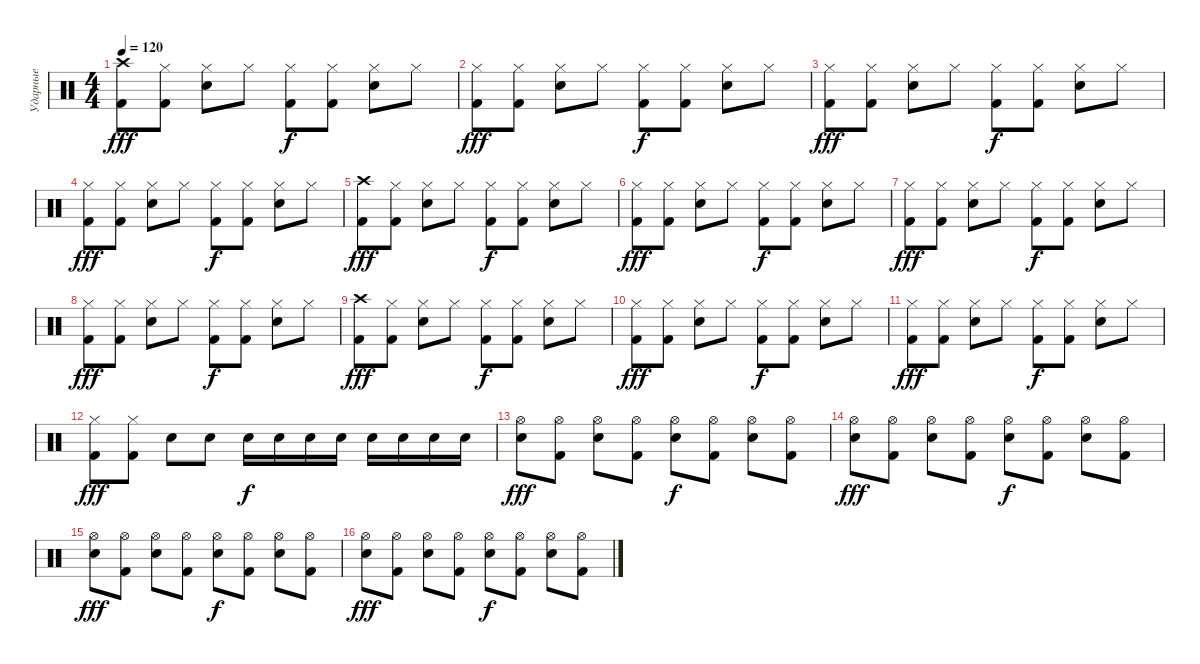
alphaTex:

\track ("Ударные" "Ударные") {instrument percussion}
\staff {score}
\articulation defaults
\ts (4 4)
\tempo 120
\clef neutral
\ks c
("Crash high (hit)" "Kick (hit) 2").8{dy fff} ("Hi-Hat (closed)" "Kick (hit) 2").8 ("Hi-Hat (closed)" "Snare (hit) 2").8 "Hi-Hat (closed)".8 ("Hi-Hat (closed)" "Kick (hit) 2").8{dy f} ("Hi-Hat (closed)" "Kick (hit) 2").8 ("Hi-Hat (closed)" "Snare (hit) 2").8 "Hi-Hat (closed)".8 |
("Hi-Hat (closed)" "Kick (hit) 2").8{dy fff} ("Hi-Hat (closed)" "Kick (hit) 2").8 ("Hi-Hat (closed)" "Snare (hit) 2").8 "Hi-Hat (closed)".8 ("Hi-Hat (closed)" "Kick (hit) 2").8{dy f} ("Hi-Hat (closed)" "Kick (hit) 2").8 ("Hi-Hat (closed)" "Snare (hit) 2").8 "Hi-Hat (closed)".8 |
("Hi-Hat (closed)" "Kick (hit) 2").8{dy fff} ("Hi-Hat (closed)" "Kick (hit) 2").8 ("Hi-Hat (closed)" "Snare (hit) 2").8 "Hi-Hat (closed)".8 ("Hi-Hat (closed)" "Kick (hit) 2").8{dy f} ("Hi-Hat (closed)" "Kick (hit) 2").8 ("Hi-Hat (closed)" "Snare (hit) 2").8 "Hi-Hat (closed)".8 |
("Hi-Hat (closed)" "Kick (hit) 2").8{dy fff} ("Hi-Hat (closed)" "Kick (hit) 2").8 ("Hi-Hat (closed)" "Snare (hit) 2").8 "Hi-Hat (closed)".8 ("Hi-Hat (closed)" "Kick (hit) 2").8{dy f} ("Hi-Hat (closed)" "Kick (hit) 2").8 ("Hi-Hat (closed)" "Snare (hit) 2").8 "Hi-Hat (closed)".8 |
("Crash high (hit)" "Kick (hit) 2").8{dy fff} ("Hi-Hat (closed)" "Kick (hit) 2").8 ("Hi-Hat (closed)" "Snare (hit) 2").8 "Hi-Hat (closed)".8 ("Hi-Hat (closed)" "Kick (hit) 2").8{dy f} ("Hi-Hat (closed)" "Kick (hit) 2").8 ("Hi-Hat (closed)" "Snare (hit) 2").8 "Hi-Hat (closed)".8 |
("Hi-Hat (closed)" "Kick (hit) 2").8{dy fff} ("Hi-Hat (closed)" "Kick (hit) 2").8 ("Hi-Hat (closed)" "Snare (hit) 2").8 "Hi-Hat (closed)".8 ("Hi-Hat (closed)" "Kick (hit) 2").8{dy f} ("Hi-Hat (closed)" "Kick (hit) 2").8 ("Hi-Hat (closed)" "Snare (hit) 2").8 "Hi-Hat (closed)".8 |
("Hi-Hat (closed)" "Kick (hit) 2").8{dy fff} ("Hi-Hat (closed)" "Kick (hit) 2").8 ("Hi-Hat (closed)" "Snare (hit) 2").8 "Hi-Hat (closed)".8 ("Hi-Hat (closed)" "Kick (hit) 2").8{dy f} ("Hi-Hat (closed)" "Kick (hit) 2").8 ("Hi-Hat (closed)" "Snare (hit) 2").8 "Hi-Hat (closed)".8 |
("Hi-Hat (closed)" "Kick (hit) 2").8{dy fff} ("Hi-Hat (closed)" "Kick (hit) 2").8 ("Hi-Hat (closed)" "Snare (hit) 2").8 "Hi-Hat (closed)".8 ("Hi-Hat (closed)" "Kick (hit) 2").8{dy f} ("Hi-Hat (closed)" "Kick (hit) 2").8 ("Hi-Hat (closed)" "Snare (hit) 2").8 "Hi-Hat (closed)".8 |
("Crash high (hit)" "Kick (hit) 2").8{dy fff} ("Hi-Hat (closed)" "Kick (hit) 2").8 ("Hi-Hat (closed)" "Snare (hit) 2").8 "Hi-Hat (closed)".8 ("Hi-Hat (closed)" "Kick (hit) 2").8{dy f} ("Hi-Hat (closed)" "Kick (hit) 2").8 ("Hi-Hat (closed)" "Snare (hit) 2").8 "Hi-Hat (closed)".8 |
("Hi-Hat (closed)" "Kick (hit) 2").8{dy fff} ("Hi-Hat (closed)" "Kick (hit) 2").8 ("Hi-Hat (closed)" "Snare (hit) 2").8 "Hi-Hat (closed)".8 ("Hi-Hat (closed)" "Kick (hit) 2").8{dy f} ("Hi-Hat (closed)" "Kick (hit) 2").8 ("Hi-Hat (closed)" "Snare (hit) 2").8 "Hi-Hat (closed)".8 |
("Hi-Hat (closed)" "Kick (hit) 2").8{dy fff} ("Hi-Hat (closed)" "Kick (hit) 2").8 ("Hi-Hat (closed)" "Snare (hit) 2").8 "Hi-Hat (closed)".8 ("Hi-Hat (closed)" "Kick (hit) 2").8{dy f} ("Hi-Hat (closed)" "Kick (hit) 2").8 ("Hi-Hat (closed)" "Snare (hit) 2").8 "Hi-Hat (closed)".8 |
("Hi-Hat (closed)" "Kick (hit) 2").8{dy fff} ("Hi-Hat (closed)" "Kick (hit) 2").8 "Snare (hit) 2".8 "Snare (hit) 2".8 "Snare (hit) 2".16{dy f} "Snare (hit) 2".16 "Snare (hit) 2".16 "Snare (hit) 2".16 "Snare (hit) 2".16 "Snare (hit) 2".16 "Snare (hit) 2".16 "Snare (hit) 2".16 |
("Hi-Hat (open)" "Snare (hit) 2").8{dy fff} ("Hi-Hat (open)" "Kick (hit) 2").8 ("Hi-Hat (open)" "Snare (hit) 2").8 ("Hi-Hat (open)" "Kick (hit) 2").8 ("Hi-Hat (open)" "Snare (hit) 2").8{dy f} ("Hi-Hat (open)" "Kick (hit) 2").8 ("Hi-Hat (open)" "Snare (hit) 2").8 ("Hi-Hat (open)" "Kick (hit) 2").8 |
("Hi-Hat (open)" "Snare (hit) 2").8{dy fff} ("Hi-Hat (open)" "Kick (hit) 2").8 ("Hi-Hat (open)" "Snare (hit) 2").8 ("Hi-Hat (open)" "Kick (hit) 2").8 ("Hi-Hat (open)" "Snare (hit) 2").8{dy f} ("Hi-Hat (open)" "Kick (hit) 2").8 ("Hi-Hat (open)" "Snare (hit) 2").8 ("Hi-Hat (open)" "Kick (hit) 2").8 |
("Hi-Hat (open)" "Snare (hit) 2").8{dy fff} ("Hi-Hat (open)" "Kick (hit) 2").8 ("Hi-Hat (open)" "Snare (hit) 2").8 ("Hi-Hat (open)" "Kick (hit) 2").8 ("Hi-Hat (open)" "Snare (hit) 2").8{dy f} ("Hi-Hat (open)" "Kick (hit) 2").8 ("Hi-Hat (open)" "Snare (hit) 2").8 ("Hi-Hat (open)" "Kick (hit) 2").8 |
("Hi-Hat (open)" "Snare (hit) 2").8{dy fff} ("Hi-Hat (open)" "Kick (hit) 2").8 ("Hi-Hat (open)" "Snare (hit) 2").8 ("Hi-Hat (open)" "Kick (hit) 2").8 ("Hi-Hat (open)" "Snare (hit) 2").8{dy f} ("Hi-Hat (open)" "Kick (hit) 2").8 ("Hi-Hat (open)" "Snare (hit) 2").8 ("Hi-Hat (open)" "Kick (hit) 2").8
